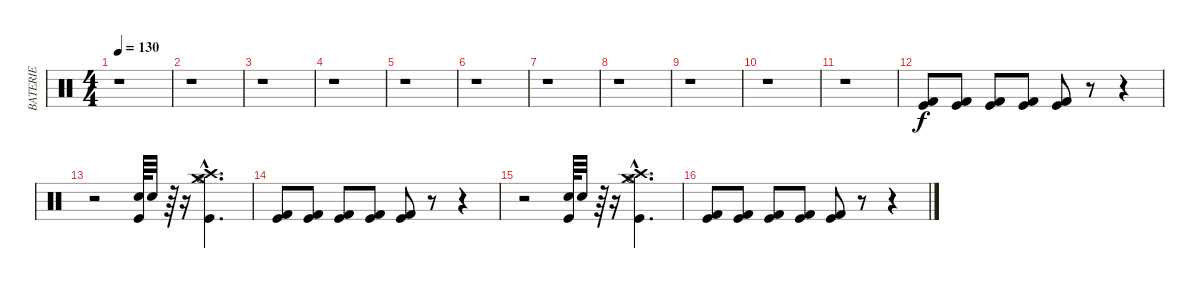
\track ("BATERIE" "BATERIE") {instrument percussion}
\staff {score}
\articulation defaults
\ts (4 4)
\tempo 130
\clef neutral
\ks c
r.1{dy f} |
r.1 |
r.1 |
r.1 |
r.1 |
r.1 |
r.1 |
r.1 |
r.1 |
r.1 |
r.1 |
("Kick (hit) 2" "Kick (hit)").8 ("Kick (hit) 2" "Kick (hit)").8 ("Kick (hit) 2" "Kick (hit)").8 ("Kick (hit) 2" "Kick (hit)").8 ("Kick (hit) 2" "Kick (hit)").8 r.8 r.4 |
r.2 ("Snare (hit) 2" "Kick (hit)").64 "Snare (hit) 2".32 r.64 r.16 ("Crash high (hit)"{hac} "Hi-Hat (open)"{hac} "Crash medium (hit)"{hac} "Kick (hit)"{hac}).4{d} |
("Kick (hit) 2" "Kick (hit)").8 ("Kick (hit) 2" "Kick (hit)").8 ("Kick (hit) 2" "Kick (hit)").8 ("Kick (hit) 2" "Kick (hit)").8 ("Kick (hit) 2" "Kick (hit)").8 r.8 r.4 |
r.2 ("Snare (hit) 2" "Kick (hit)").64 "Snare (hit) 2".32 r.64 r.16 ("Crash high (hit)"{hac} "Hi-Hat (open)"{hac} "Crash medium (hit)"{hac} "Kick (hit)"{hac}).4{d} |
("Kick (hit) 2" "Kick (hit)").8 ("Kick (hit) 2" "Kick (hit)").8 ("Kick (hit) 2" "Kick (hit)").8 ("Kick (hit) 2" "Kick (hit)").8 ("Kick (hit) 2" "Kick (hit)").8 r.8 r.4
